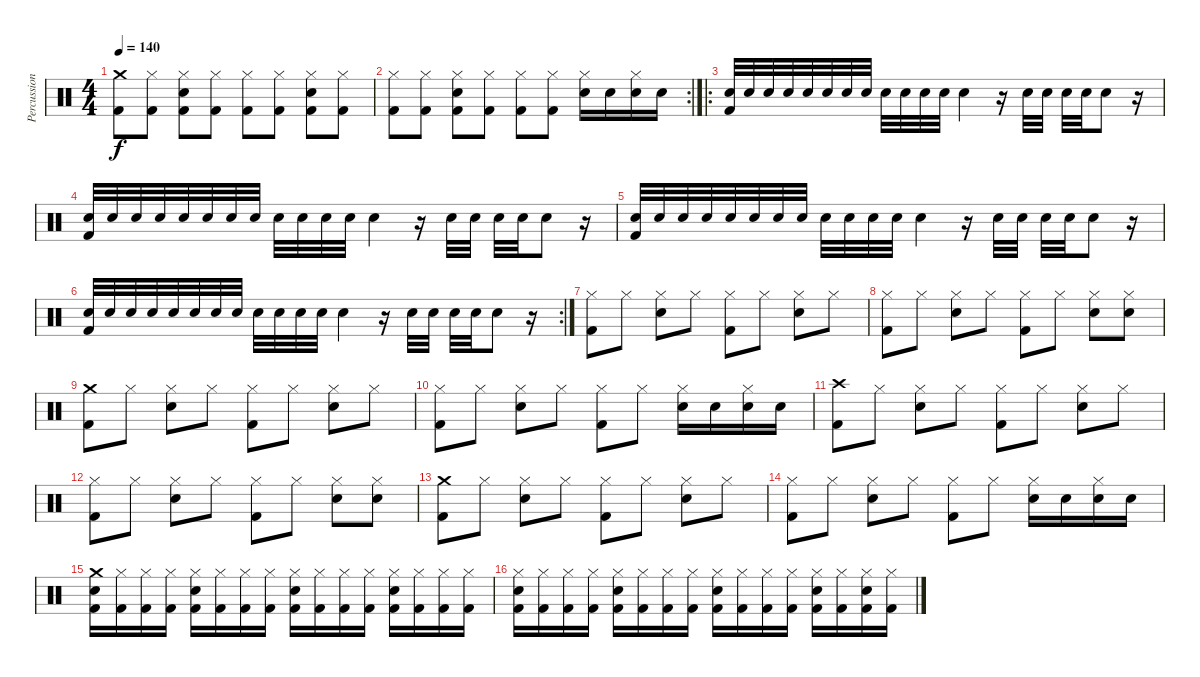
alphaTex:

\track ("Percussion" "Percussion") {instrument percussion}
\staff {score}
\articulation defaults
\ts (4 4)
\tempo 140
\clef neutral
\ks c
("Crash medium (hit)" "Kick (hit) 2").8{dy f} ("Hi-Hat (closed)" "Kick (hit) 2").8 ("Hi-Hat (closed)" "Snare (hit) 2" "Kick (hit) 2").8 ("Hi-Hat (closed)" "Kick (hit) 2").8 ("Hi-Hat (closed)" "Kick (hit) 2").8 ("Hi-Hat (closed)" "Kick (hit) 2").8 ("Hi-Hat (closed)" "Snare (hit) 2" "Kick (hit) 2").8 ("Hi-Hat (closed)" "Kick (hit) 2").8 |
\rc 2
("Hi-Hat (closed)" "Kick (hit) 2").8 ("Hi-Hat (closed)" "Kick (hit) 2").8 ("Hi-Hat (closed)" "Snare (hit) 2" "Kick (hit) 2").8 ("Hi-Hat (closed)" "Kick (hit) 2").8 ("Hi-Hat (closed)" "Kick (hit) 2").8 ("Hi-Hat (closed)" "Kick (hit) 2").8 ("Hi-Hat (closed)" "Snare (hit) 2").16 "Snare (hit) 2".16 ("Hi-Hat (closed)" "Snare (hit) 2").16 "Snare (hit) 2".16 |
\ro
("Snare (hit) 2" "Kick (hit) 2").32 "Snare (hit) 2".32 "Snare (hit) 2".32 "Snare (hit) 2".32 "Snare (hit) 2".32 "Snare (hit) 2".32 "Snare (hit) 2".32 "Snare (hit) 2".32 "Snare (hit) 2".32 "Snare (hit) 2".32 "Snare (hit) 2".32 "Snare (hit) 2".32 "Snare (hit) 2".4 r.16 "Snare (hit) 2".32 "Snare (hit) 2".32 "Snare (hit) 2".32 "Snare (hit) 2".32 "Snare (hit) 2".8 r.16 |
("Snare (hit) 2" "Kick (hit) 2").32 "Snare (hit) 2".32 "Snare (hit) 2".32 "Snare (hit) 2".32 "Snare (hit) 2".32 "Snare (hit) 2".32 "Snare (hit) 2".32 "Snare (hit) 2".32 "Snare (hit) 2".32 "Snare (hit) 2".32 "Snare (hit) 2".32 "Snare (hit) 2".32 "Snare (hit) 2".4 r.16 "Snare (hit) 2".32 "Snare (hit) 2".32 "Snare (hit) 2".32 "Snare (hit) 2".32 "Snare (hit) 2".8 r.16 |
("Snare (hit) 2" "Kick (hit) 2").32 "Snare (hit) 2".32 "Snare (hit) 2".32 "Snare (hit) 2".32 "Snare (hit) 2".32 "Snare (hit) 2".32 "Snare (hit) 2".32 "Snare (hit) 2".32 "Snare (hit) 2".32 "Snare (hit) 2".32 "Snare (hit) 2".32 "Snare (hit) 2".32 "Snare (hit) 2".4 r.16 "Snare (hit) 2".32 "Snare (hit) 2".32 "Snare (hit) 2".32 "Snare (hit) 2".32 "Snare (hit) 2".8 r.16 |
\rc 2
("Snare (hit) 2" "Kick (hit) 2").32 "Snare (hit) 2".32 "Snare (hit) 2".32 "Snare (hit) 2".32 "Snare (hit) 2".32 "Snare (hit) 2".32 "Snare (hit) 2".32 "Snare (hit) 2".32 "Snare (hit) 2".32 "Snare (hit) 2".32 "Snare (hit) 2".32 "Snare (hit) 2".32 "Snare (hit) 2".4 r.16 "Snare (hit) 2".32 "Snare (hit) 2".32 "Snare (hit) 2".32 "Snare (hit) 2".32 "Snare (hit) 2".8 r.16 |
("Hi-Hat (closed)" "Kick (hit) 2").8 "Hi-Hat (closed)".8 ("Hi-Hat (closed)" "Snare (hit) 2").8 "Hi-Hat (closed)".8 ("Hi-Hat (closed)" "Kick (hit) 2").8 "Hi-Hat (closed)".8 ("Hi-Hat (closed)" "Snare (hit) 2").8 "Hi-Hat (closed)".8 |
("Hi-Hat (closed)" "Kick (hit) 2").8 "Hi-Hat (closed)".8 ("Hi-Hat (closed)" "Snare (hit) 2").8 "Hi-Hat (closed)".8 ("Hi-Hat (closed)" "Kick (hit) 2").8 "Hi-Hat (closed)".8 ("Hi-Hat (closed)" "Snare (hit) 2").8 ("Hi-Hat (closed)" "Snare (hit) 2").8 |
("Crash medium (hit)" "Kick (hit) 2").8 "Hi-Hat (closed)".8 ("Hi-Hat (closed)" "Snare (hit) 2").8 "Hi-Hat (closed)".8 ("Hi-Hat (closed)" "Kick (hit) 2").8 "Hi-Hat (closed)".8 ("Hi-Hat (closed)" "Snare (hit) 2").8 "Hi-Hat (closed)".8 |
("Hi-Hat (closed)" "Kick (hit) 2").8 "Hi-Hat (closed)".8 ("Hi-Hat (closed)" "Snare (hit) 2").8 "Hi-Hat (closed)".8 ("Hi-Hat (closed)" "Kick (hit) 2").8 "Hi-Hat (closed)".8 ("Hi-Hat (closed)" "Snare (hit) 2").16 "Snare (hit) 2".16 ("Hi-Hat (closed)" "Snare (hit) 2").16 "Snare (hit) 2".16 |
("Crash high (hit)" "Kick (hit) 2").8 "Hi-Hat (closed)".8 ("Hi-Hat (closed)" "Snare (hit) 2").8 "Hi-Hat (closed)".8 ("Hi-Hat (closed)" "Kick (hit) 2").8 "Hi-Hat (closed)".8 ("Hi-Hat (closed)" "Snare (hit) 2").8 "Hi-Hat (closed)".8 |
("Hi-Hat (closed)" "Kick (hit) 2").8 "Hi-Hat (closed)".8 ("Hi-Hat (closed)" "Snare (hit) 2").8 "Hi-Hat (closed)".8 ("Hi-Hat (closed)" "Kick (hit) 2").8 "Hi-Hat (closed)".8 ("Hi-Hat (closed)" "Snare (hit) 2").8 ("Hi-Hat (closed)" "Snare (hit) 2").8 |
("Crash medium (hit)" "Kick (hit) 2").8 "Hi-Hat (closed)".8 ("Hi-Hat (closed)" "Snare (hit) 2").8 "Hi-Hat (closed)".8 ("Hi-Hat (closed)" "Kick (hit) 2").8 "Hi-Hat (closed)".8 ("Hi-Hat (closed)" "Snare (hit) 2").8 "Hi-Hat (closed)".8 |
("Hi-Hat (closed)" "Kick (hit) 2").8 "Hi-Hat (closed)".8 ("Hi-Hat (closed)" "Snare (hit) 2").8 "Hi-Hat (closed)".8 ("Hi-Hat (closed)" "Kick (hit) 2").8 "Hi-Hat (closed)".8 ("Hi-Hat (closed)" "Snare (hit) 2").16 "Snare (hit) 2".16 ("Hi-Hat (closed)" "Snare (hit) 2").16 "Snare (hit) 2".16 |
("Crash medium (hit)" "Snare (hit) 2" "Kick (hit) 2").16 ("Hi-Hat (closed)" "Kick (hit) 2").16 ("Hi-Hat (closed)" "Kick (hit) 2").16 ("Hi-Hat (closed)" "Kick (hit) 2").16 ("Hi-Hat (closed)" "Snare (hit) 2" "Kick (hit) 2").16 ("Hi-Hat (closed)" "Kick (hit) 2").16 ("Hi-Hat (closed)" "Kick (hit) 2").16 ("Hi-Hat (closed)" "Kick (hit) 2").16 ("Hi-Hat (closed)" "Snare (hit) 2" "Kick (hit) 2").16 ("Hi-Hat (closed)" "Kick (hit) 2").16 ("Hi-Hat (closed)" "Kick (hit) 2").16 ("Hi-Hat (closed)" "Kick (hit) 2").16 ("Hi-Hat (closed)" "Snare (hit) 2" "Kick (hit) 2").16 ("Hi-Hat (closed)" "Kick (hit) 2").16 ("Hi-Hat (closed)" "Kick (hit) 2").16 ("Hi-Hat (closed)" "Kick (hit) 2").16 |
("Hi-Hat (closed)" "Snare (hit) 2" "Kick (hit) 2").16 ("Hi-Hat (closed)" "Kick (hit) 2").16 ("Hi-Hat (closed)" "Kick (hit) 2").16 ("Hi-Hat (closed)" "Kick (hit) 2").16 ("Hi-Hat (closed)" "Snare (hit) 2" "Kick (hit) 2").16 ("Hi-Hat (closed)" "Kick (hit) 2").16 ("Hi-Hat (closed)" "Kick (hit) 2").16 ("Hi-Hat (closed)" "Kick (hit) 2").16 ("Hi-Hat (closed)" "Snare (hit) 2" "Kick (hit) 2").16 ("Hi-Hat (closed)" "Kick (hit) 2").16 ("Hi-Hat (closed)" "Kick (hit) 2").16 ("Hi-Hat (closed)" "Kick (hit) 2").16 ("Hi-Hat (closed)" "Snare (hit) 2" "Kick (hit) 2").16 ("Hi-Hat (closed)" "Kick (hit) 2").16 ("Hi-Hat (closed)" "Snare (hit) 2" "Kick (hit) 2").16 ("Hi-Hat (closed)" "Kick (hit) 2").16
